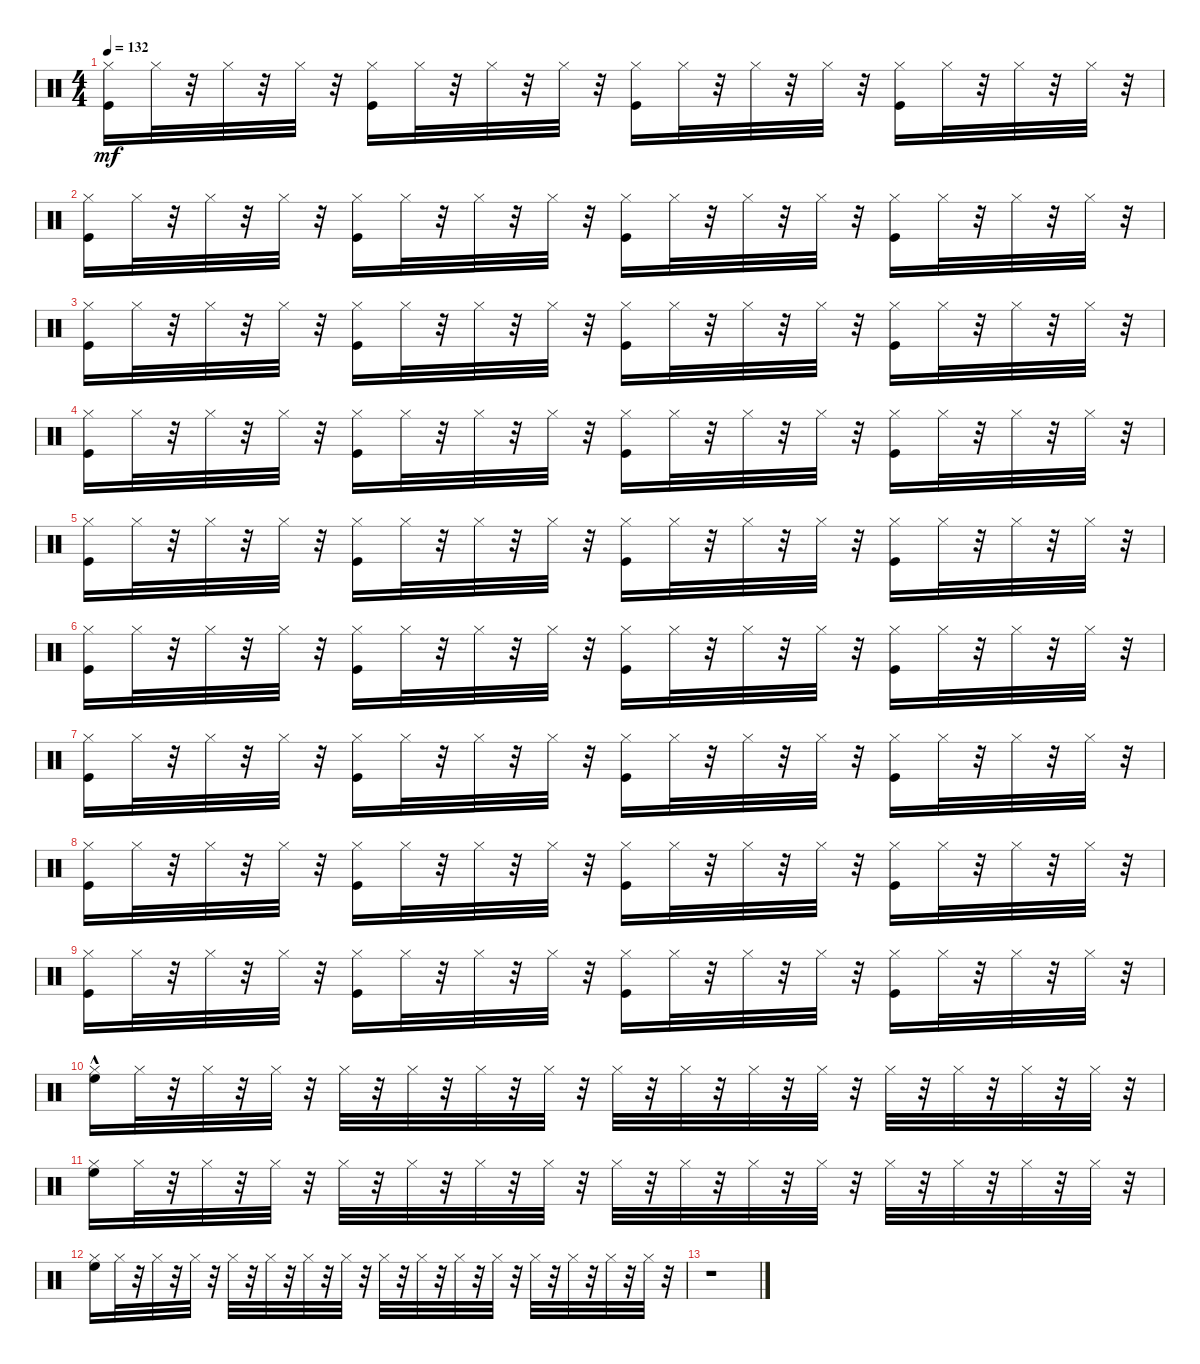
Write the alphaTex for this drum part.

\track "" {instrument percussion}
\staff {score}
\articulation defaults
\ts (4 4)
\tempo 132
\clef neutral
\ks c
("Hi-Hat (closed)" "Kick (hit)").16{dy mf} "Hi-Hat (closed)".32 r.32 "Hi-Hat (closed)".32 r.32 "Hi-Hat (closed)".32 r.32 ("Hi-Hat (closed)" "Kick (hit)").16 "Hi-Hat (closed)".32 r.32 "Hi-Hat (closed)".32 r.32 "Hi-Hat (closed)".32 r.32 ("Hi-Hat (closed)" "Kick (hit)").16 "Hi-Hat (closed)".32 r.32 "Hi-Hat (closed)".32 r.32 "Hi-Hat (closed)".32 r.32 ("Hi-Hat (closed)" "Kick (hit)").16 "Hi-Hat (closed)".32 r.32 "Hi-Hat (closed)".32 r.32 "Hi-Hat (closed)".32 r.32 |
("Hi-Hat (closed)" "Kick (hit)").16 "Hi-Hat (closed)".32 r.32 "Hi-Hat (closed)".32 r.32 "Hi-Hat (closed)".32 r.32 ("Hi-Hat (closed)" "Kick (hit)").16 "Hi-Hat (closed)".32 r.32 "Hi-Hat (closed)".32 r.32 "Hi-Hat (closed)".32 r.32 ("Hi-Hat (closed)" "Kick (hit)").16 "Hi-Hat (closed)".32 r.32 "Hi-Hat (closed)".32 r.32 "Hi-Hat (closed)".32 r.32 ("Hi-Hat (closed)" "Kick (hit)").16 "Hi-Hat (closed)".32 r.32 "Hi-Hat (closed)".32 r.32 "Hi-Hat (closed)".32 r.32 |
("Hi-Hat (closed)" "Kick (hit)").16 "Hi-Hat (closed)".32 r.32 "Hi-Hat (closed)".32 r.32 "Hi-Hat (closed)".32 r.32 ("Hi-Hat (closed)" "Kick (hit)").16 "Hi-Hat (closed)".32 r.32 "Hi-Hat (closed)".32 r.32 "Hi-Hat (closed)".32 r.32 ("Hi-Hat (closed)" "Kick (hit)").16 "Hi-Hat (closed)".32 r.32 "Hi-Hat (closed)".32 r.32 "Hi-Hat (closed)".32 r.32 ("Hi-Hat (closed)" "Kick (hit)").16 "Hi-Hat (closed)".32 r.32 "Hi-Hat (closed)".32 r.32 "Hi-Hat (closed)".32 r.32 |
("Hi-Hat (closed)" "Kick (hit)").16 "Hi-Hat (closed)".32 r.32 "Hi-Hat (closed)".32 r.32 "Hi-Hat (closed)".32 r.32 ("Hi-Hat (closed)" "Kick (hit)").16 "Hi-Hat (closed)".32 r.32 "Hi-Hat (closed)".32 r.32 "Hi-Hat (closed)".32 r.32 ("Hi-Hat (closed)" "Kick (hit)").16 "Hi-Hat (closed)".32 r.32 "Hi-Hat (closed)".32 r.32 "Hi-Hat (closed)".32 r.32 ("Hi-Hat (closed)" "Kick (hit)").16 "Hi-Hat (closed)".32 r.32 "Hi-Hat (closed)".32 r.32 "Hi-Hat (closed)".32 r.32 |
("Hi-Hat (closed)" "Kick (hit)").16 "Hi-Hat (closed)".32 r.32 "Hi-Hat (closed)".32 r.32 "Hi-Hat (closed)".32 r.32 ("Hi-Hat (closed)" "Kick (hit)").16 "Hi-Hat (closed)".32 r.32 "Hi-Hat (closed)".32 r.32 "Hi-Hat (closed)".32 r.32 ("Hi-Hat (closed)" "Kick (hit)").16 "Hi-Hat (closed)".32 r.32 "Hi-Hat (closed)".32 r.32 "Hi-Hat (closed)".32 r.32 ("Hi-Hat (closed)" "Kick (hit)").16 "Hi-Hat (closed)".32 r.32 "Hi-Hat (closed)".32 r.32 "Hi-Hat (closed)".32 r.32 |
("Hi-Hat (closed)" "Kick (hit)").16 "Hi-Hat (closed)".32 r.32 "Hi-Hat (closed)".32 r.32 "Hi-Hat (closed)".32 r.32 ("Hi-Hat (closed)" "Kick (hit)").16 "Hi-Hat (closed)".32 r.32 "Hi-Hat (closed)".32 r.32 "Hi-Hat (closed)".32 r.32 ("Hi-Hat (closed)" "Kick (hit)").16 "Hi-Hat (closed)".32 r.32 "Hi-Hat (closed)".32 r.32 "Hi-Hat (closed)".32 r.32 ("Hi-Hat (closed)" "Kick (hit)").16 "Hi-Hat (closed)".32 r.32 "Hi-Hat (closed)".32 r.32 "Hi-Hat (closed)".32 r.32 |
("Hi-Hat (closed)" "Kick (hit)").16 "Hi-Hat (closed)".32 r.32 "Hi-Hat (closed)".32 r.32 "Hi-Hat (closed)".32 r.32 ("Hi-Hat (closed)" "Kick (hit)").16 "Hi-Hat (closed)".32 r.32 "Hi-Hat (closed)".32 r.32 "Hi-Hat (closed)".32 r.32 ("Hi-Hat (closed)" "Kick (hit)").16 "Hi-Hat (closed)".32 r.32 "Hi-Hat (closed)".32 r.32 "Hi-Hat (closed)".32 r.32 ("Hi-Hat (closed)" "Kick (hit)").16 "Hi-Hat (closed)".32 r.32 "Hi-Hat (closed)".32 r.32 "Hi-Hat (closed)".32 r.32 |
("Hi-Hat (closed)" "Kick (hit)").16 "Hi-Hat (closed)".32 r.32 "Hi-Hat (closed)".32 r.32 "Hi-Hat (closed)".32 r.32 ("Hi-Hat (closed)" "Kick (hit)").16 "Hi-Hat (closed)".32 r.32 "Hi-Hat (closed)".32 r.32 "Hi-Hat (closed)".32 r.32 ("Hi-Hat (closed)" "Kick (hit)").16 "Hi-Hat (closed)".32 r.32 "Hi-Hat (closed)".32 r.32 "Hi-Hat (closed)".32 r.32 ("Hi-Hat (closed)" "Kick (hit)").16 "Hi-Hat (closed)".32 r.32 "Hi-Hat (closed)".32 r.32 "Hi-Hat (closed)".32 r.32 |
("Hi-Hat (closed)" "Kick (hit)").16 "Hi-Hat (closed)".32 r.32 "Hi-Hat (closed)".32 r.32 "Hi-Hat (closed)".32 r.32 ("Hi-Hat (closed)" "Kick (hit)").16 "Hi-Hat (closed)".32 r.32 "Hi-Hat (closed)".32 r.32 "Hi-Hat (closed)".32 r.32 ("Hi-Hat (closed)" "Kick (hit)").16 "Hi-Hat (closed)".32 r.32 "Hi-Hat (closed)".32 r.32 "Hi-Hat (closed)".32 r.32 ("Hi-Hat (closed)" "Kick (hit)").16 "Hi-Hat (closed)".32 r.32 "Hi-Hat (closed)".32 r.32 "Hi-Hat (closed)".32 r.32 |
("Hi-Hat (closed)" "High Floor Tom (hit)"{hac}).16 "Hi-Hat (closed)".32 r.32 "Hi-Hat (closed)".32 r.32 "Hi-Hat (closed)".32 r.32 "Hi-Hat (closed)".32 r.32 "Hi-Hat (closed)".32 r.32 "Hi-Hat (closed)".32 r.32 "Hi-Hat (closed)".32 r.32 "Hi-Hat (closed)".32 r.32 "Hi-Hat (closed)".32 r.32 "Hi-Hat (closed)".32 r.32 "Hi-Hat (closed)".32 r.32 "Hi-Hat (closed)".32 r.32 "Hi-Hat (closed)".32 r.32 "Hi-Hat (closed)".32 r.32 "Hi-Hat (closed)".32 r.32 |
("Hi-Hat (closed)" "High Floor Tom (hit)").16 "Hi-Hat (closed)".32 r.32 "Hi-Hat (closed)".32 r.32 "Hi-Hat (closed)".32 r.32 "Hi-Hat (closed)".32 r.32 "Hi-Hat (closed)".32 r.32 "Hi-Hat (closed)".32 r.32 "Hi-Hat (closed)".32 r.32 "Hi-Hat (closed)".32 r.32 "Hi-Hat (closed)".32 r.32 "Hi-Hat (closed)".32 r.32 "Hi-Hat (closed)".32 r.32 "Hi-Hat (closed)".32 r.32 "Hi-Hat (closed)".32 r.32 "Hi-Hat (closed)".32 r.32 "Hi-Hat (closed)".32 r.32 |
("Hi-Hat (closed)" "High Floor Tom (hit)").16 "Hi-Hat (closed)".32 r.32 "Hi-Hat (closed)".32 r.32 "Hi-Hat (closed)".32 r.32 "Hi-Hat (closed)".32 r.32 "Hi-Hat (closed)".32 r.32 "Hi-Hat (closed)".32 r.32 "Hi-Hat (closed)".32 r.32 "Hi-Hat (closed)".32 r.32 "Hi-Hat (closed)".32 r.32 "Hi-Hat (closed)".32 r.32 "Hi-Hat (closed)".32 r.32 "Hi-Hat (closed)".32 r.32 "Hi-Hat (closed)".32 r.32 "Hi-Hat (closed)".32 r.32 "Hi-Hat (closed)".32 r.32 |
r.1
